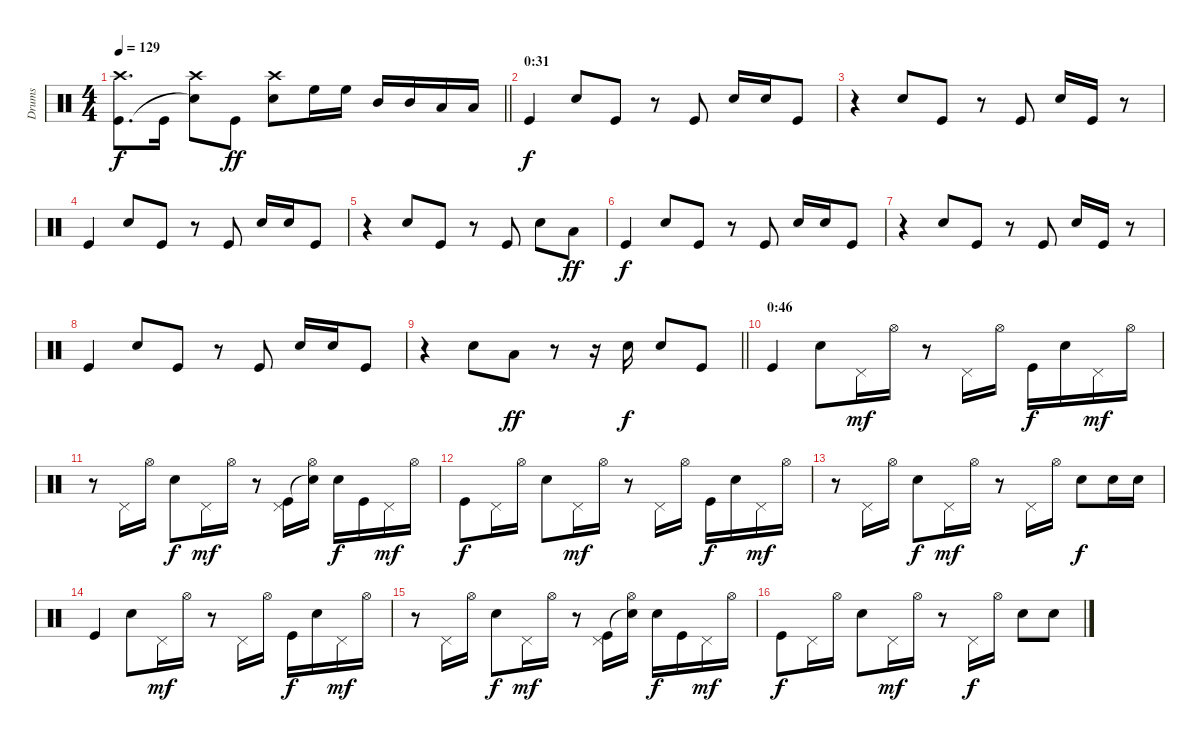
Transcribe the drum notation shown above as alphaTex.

\track ("Drums" "Drums") {instrument percussion}
\staff {score}
\articulation defaults
\ts (4 4)
\tempo 129
\clef neutral
\barLineRight lightlight
\ks c
("Crash high (hit)" "Kick (hit)").8{d dy f} "Kick (hit)".16 ("Crash high (hit)" "Snare (hit)"{t}).8 "Kick (hit)".8{dy ff} ("Crash high (hit)" "Snare (hit) 2").8 "High Floor Tom (hit)".16 "High Floor Tom (hit)".16 "Mid Tom (hit)".16 "Mid Tom (hit)".16 "Low Tom (hit)".16 "Low Tom (hit)".16 |
\section ("" "0:31")
"Kick (hit)".4{dy f} "Snare (hit) 2".8 "Kick (hit)".8 r.8 "Kick (hit)".8 "Snare (hit) 2".16 "Snare (hit) 2".16 "Kick (hit)".8 |
r.4 "Snare (hit) 2".8 "Kick (hit)".8 r.8 "Kick (hit)".8 "Snare (hit) 2".16 "Kick (hit)".16 r.8 |
"Kick (hit)".4 "Snare (hit) 2".8 "Kick (hit)".8 r.8 "Kick (hit)".8 "Snare (hit) 2".16 "Snare (hit) 2".16 "Kick (hit)".8 |
r.4 "Snare (hit) 2".8 "Kick (hit)".8 r.8 "Kick (hit)".8 "Snare (hit) 2".8 "Low Tom (hit)".8{dy ff} |
"Kick (hit)".4{dy f} "Snare (hit) 2".8 "Kick (hit)".8 r.8 "Kick (hit)".8 "Snare (hit) 2".16 "Snare (hit) 2".16 "Kick (hit)".8 |
r.4 "Snare (hit) 2".8 "Kick (hit)".8 r.8 "Kick (hit)".8 "Snare (hit) 2".16 "Kick (hit)".16 r.8 |
"Kick (hit)".4 "Snare (hit) 2".8 "Kick (hit)".8 r.8 "Kick (hit)".8 "Snare (hit) 2".16 "Snare (hit) 2".16 "Kick (hit)".8 |
\barLineRight lightlight
r.4 "Snare (hit) 2".8 "Low Tom (hit)".8{dy ff} r.8 r.16 "Snare (hit) 2".16{dy f} "Snare (hit) 2".8 "Kick (hit)".8 |
\section ("" "0:46")
"Kick (hit)".4 "Snare (hit) 2".8 "Pedal Hi-Hat (hit)".16{dy mf} "Hi-Hat (open)".16 r.8 "Pedal Hi-Hat (hit)".16 "Hi-Hat (open)".16 "Kick (hit)".16{dy f} "Snare (hit) 2".16 "Pedal Hi-Hat (hit)".16{dy mf} "Hi-Hat (open)".16 |
r.8 "Pedal Hi-Hat (hit)".16 "Hi-Hat (open)".16 "Snare (hit) 2".8{dy f} "Pedal Hi-Hat (hit)".16{dy mf} "Hi-Hat (open)".16 r.8 ("Pedal Hi-Hat (hit)" "Kick (hit)").16 ("Hi-Hat (open)" "Snare (hit)"{t}).16 "Snare (hit) 2".16{dy f} "Kick (hit)".16 "Pedal Hi-Hat (hit)".16{dy mf} "Hi-Hat (open)".16 |
"Kick (hit)".8{dy f} "Pedal Hi-Hat (hit)".16 "Hi-Hat (open)".16 "Snare (hit) 2".8 "Pedal Hi-Hat (hit)".16{dy mf} "Hi-Hat (open)".16 r.8 "Pedal Hi-Hat (hit)".16 "Hi-Hat (open)".16 "Kick (hit)".16{dy f} "Snare (hit) 2".16 "Pedal Hi-Hat (hit)".16{dy mf} "Hi-Hat (open)".16 |
r.8 "Pedal Hi-Hat (hit)".16 "Hi-Hat (open)".16 "Snare (hit) 2".8{dy f} "Pedal Hi-Hat (hit)".16{dy mf} "Hi-Hat (open)".16 r.8 "Pedal Hi-Hat (hit)".16 "Hi-Hat (open)".16 "Snare (hit) 2".8{dy f} "Snare (hit) 2".16 "Snare (hit) 2".16 |
"Kick (hit)".4 "Snare (hit) 2".8 "Pedal Hi-Hat (hit)".16{dy mf} "Hi-Hat (open)".16 r.8 "Pedal Hi-Hat (hit)".16 "Hi-Hat (open)".16 "Kick (hit)".16{dy f} "Snare (hit) 2".16 "Pedal Hi-Hat (hit)".16{dy mf} "Hi-Hat (open)".16 |
r.8 "Pedal Hi-Hat (hit)".16 "Hi-Hat (open)".16 "Snare (hit) 2".8{dy f} "Pedal Hi-Hat (hit)".16{dy mf} "Hi-Hat (open)".16 r.8 ("Pedal Hi-Hat (hit)" "Kick (hit)").16 ("Hi-Hat (open)" "Snare (hit)"{t}).16 "Snare (hit) 2".16{dy f} "Kick (hit)".16 "Pedal Hi-Hat (hit)".16{dy mf} "Hi-Hat (open)".16 |
"Kick (hit)".8{dy f} "Pedal Hi-Hat (hit)".16 "Hi-Hat (open)".16 "Snare (hit) 2".8 "Pedal Hi-Hat (hit)".16{dy mf} "Hi-Hat (open)".16 r.8 "Pedal Hi-Hat (hit)".16{dy f} "Hi-Hat (open)".16 "Snare (hit) 2".8 "Snare (hit) 2".8
